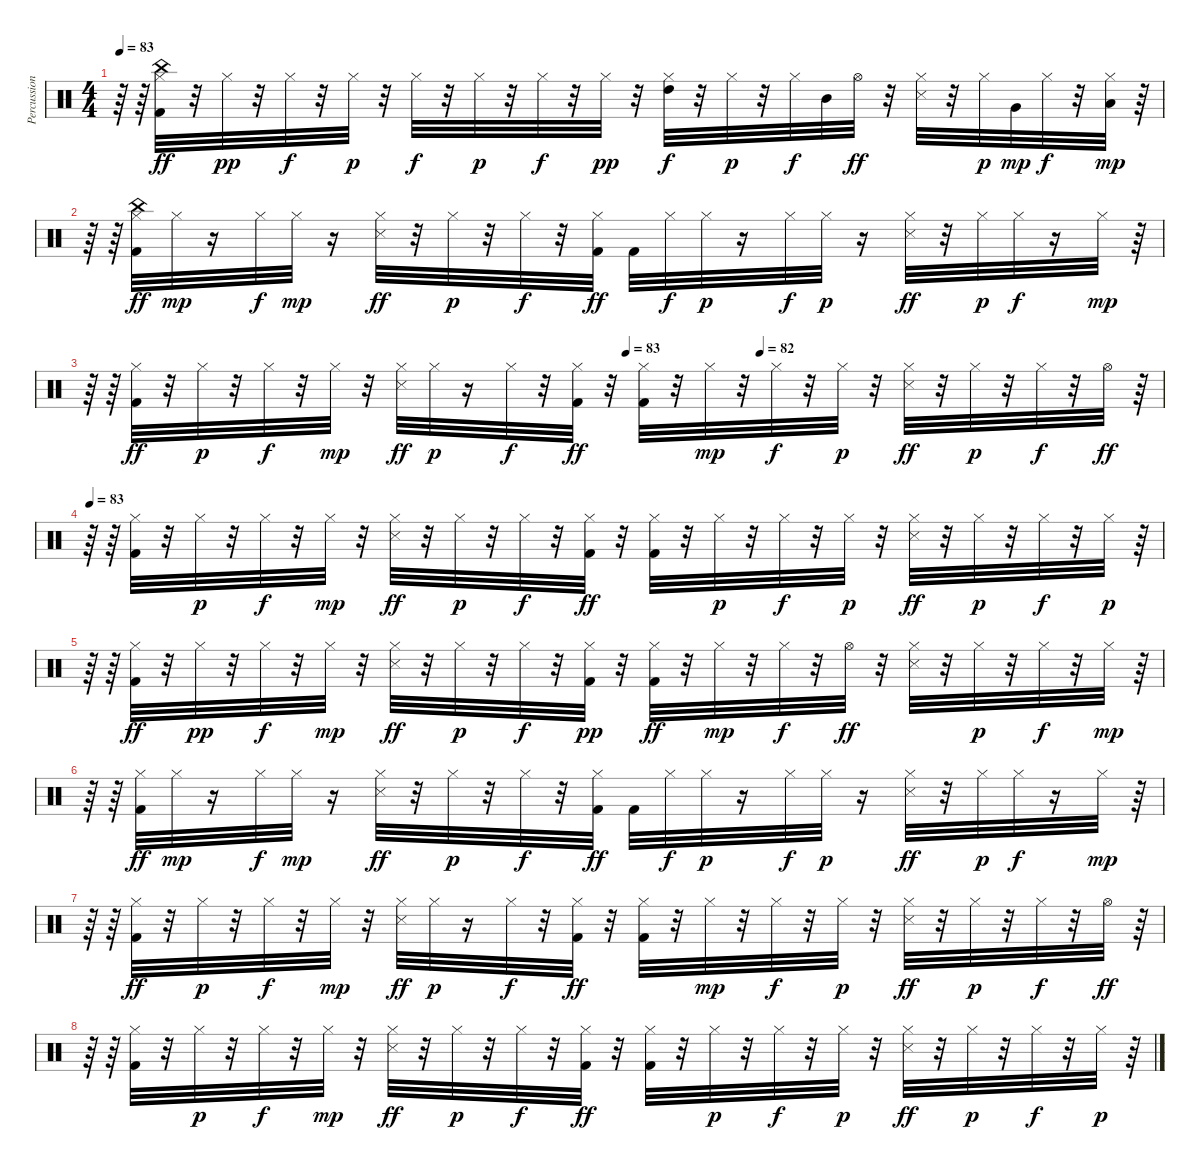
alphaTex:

\track ("Percussion" "Percussion") {instrument percussion}
\staff {score}
\articulation defaults
\ts (4 4)
\tempo 83
\clef neutral
\ks c
r.64{dy mp} r.64 ("China (hit)" "Hi-Hat (closed)" "Kick (hit) 2").32{dy ff} r.32 "Hi-Hat (closed)".32{dy pp} r.32 "Hi-Hat (closed)".32{dy f} r.32 "Hi-Hat (closed)".32{dy p} r.32 "Hi-Hat (closed)".32{dy f} r.32 "Hi-Hat (closed)".32{dy p} r.32 "Hi-Hat (closed)".32{dy f} r.32 "Hi-Hat (closed)".32{dy pp} r.32 ("High Tom (hit)" "Hi-Hat (closed)").32{dy f} r.32 "Hi-Hat (closed)".32{dy p} r.32 "Hi-Hat (closed)".32{dy f} "Mid Tom (hit)".32 "Hi-Hat (open)".32{dy ff} r.32 ("Snare (side stick) 3" "Hi-Hat (closed)").32 r.32 "Hi-Hat (closed)".32{dy p} "Very Low Tom (hit)".32{dy mp} "Hi-Hat (closed)".32{dy f} r.32 ("Low Floor Tom (hit)" "Hi-Hat (closed)").32{dy mp} r.64 |
r.64 r.64 ("China (hit)" "Hi-Hat (closed)" "Kick (hit) 2").32{dy ff} "Hi-Hat (closed)".32{dy mp} r.16 "Hi-Hat (closed)".32{dy f} "Hi-Hat (closed)".32{dy mp} r.16 ("Hi-Hat (closed)" "Snare (side stick) 3").32{dy ff} r.32 "Hi-Hat (closed)".32{dy p} r.32 "Hi-Hat (closed)".32{dy f} r.32 ("Hi-Hat (closed)" "Kick (hit) 2").32{dy ff} "Kick (hit) 2".32 "Hi-Hat (closed)".32{dy f} "Hi-Hat (closed)".32{dy p} r.16 "Hi-Hat (closed)".32{dy f} "Hi-Hat (closed)".32{dy p} r.16 ("Hi-Hat (closed)" "Snare (side stick) 3").32{dy ff} r.32 "Hi-Hat (closed)".32{dy p} "Hi-Hat (closed)".32{dy f} r.16 "Hi-Hat (closed)".32{dy mp} r.64 |
\tempo (83 0.5)
\tempo (82 0.625)
r.64 r.64 ("Kick (hit) 2" "Hi-Hat (closed)").32{dy ff} r.32 "Hi-Hat (closed)".32{dy p} r.32 "Hi-Hat (closed)".32{dy f} r.32 "Hi-Hat (closed)".32{dy mp} r.32 ("Hi-Hat (closed)" "Snare (side stick) 3").32{dy ff} "Hi-Hat (closed)".32{dy p} r.16 "Hi-Hat (closed)".32{dy f} r.32 ("Hi-Hat (closed)" "Kick (hit) 2").32{dy ff} r.32 ("Hi-Hat (closed)" "Kick (hit) 2").32 r.32 "Hi-Hat (closed)".32{dy mp} r.32 "Hi-Hat (closed)".32{dy f} r.32 "Hi-Hat (closed)".32{dy p} r.32 ("Hi-Hat (closed)" "Snare (side stick) 3").32{dy ff} r.32 "Hi-Hat (closed)".32{dy p} r.32 "Hi-Hat (closed)".32{dy f} r.32 "Hi-Hat (open)".32{dy ff} r.64 |
\tempo 83
r.64 r.64 ("Kick (hit) 2" "Hi-Hat (closed)").32 r.32 "Hi-Hat (closed)".32{dy p} r.32 "Hi-Hat (closed)".32{dy f} r.32 "Hi-Hat (closed)".32{dy mp} r.32 ("Hi-Hat (closed)" "Snare (side stick) 3").32{dy ff} r.32 "Hi-Hat (closed)".32{dy p} r.32 "Hi-Hat (closed)".32{dy f} r.32 ("Hi-Hat (closed)" "Kick (hit) 2").32{dy ff} r.32 ("Hi-Hat (closed)" "Kick (hit) 2").32 r.32 "Hi-Hat (closed)".32{dy p} r.32 "Hi-Hat (closed)".32{dy f} r.32 "Hi-Hat (closed)".32{dy p} r.32 ("Hi-Hat (closed)" "Snare (side stick) 3").32{dy ff} r.32 "Hi-Hat (closed)".32{dy p} r.32 "Hi-Hat (closed)".32{dy f} r.32 "Hi-Hat (closed)".32{dy p} r.64 |
r.64 r.64 ("Hi-Hat (closed)" "Kick (hit) 2").32{dy ff} r.32 "Hi-Hat (closed)".32{dy pp} r.32 "Hi-Hat (closed)".32{dy f} r.32 "Hi-Hat (closed)".32{dy mp} r.32 ("Snare (side stick) 3" "Hi-Hat (closed)").32{dy ff} r.32 "Hi-Hat (closed)".32{dy p} r.32 "Hi-Hat (closed)".32{dy f} r.32 ("Hi-Hat (closed)" "Kick (hit) 2").32{dy pp} r.32 ("Kick (hit) 2" "Hi-Hat (closed)").32{dy ff} r.32 "Hi-Hat (closed)".32{dy mp} r.32 "Hi-Hat (closed)".32{dy f} r.32 "Hi-Hat (open)".32{dy ff} r.32 ("Snare (side stick) 3" "Hi-Hat (closed)").32 r.32 "Hi-Hat (closed)".32{dy p} r.32 "Hi-Hat (closed)".32{dy f} r.32 "Hi-Hat (closed)".32{dy mp} r.64 |
r.64 r.64 ("Hi-Hat (closed)" "Kick (hit) 2").32{dy ff} "Hi-Hat (closed)".32{dy mp} r.16 "Hi-Hat (closed)".32{dy f} "Hi-Hat (closed)".32{dy mp} r.16 ("Hi-Hat (closed)" "Snare (side stick) 3").32{dy ff} r.32 "Hi-Hat (closed)".32{dy p} r.32 "Hi-Hat (closed)".32{dy f} r.32 ("Hi-Hat (closed)" "Kick (hit) 2").32{dy ff} "Kick (hit) 2".32 "Hi-Hat (closed)".32{dy f} "Hi-Hat (closed)".32{dy p} r.16 "Hi-Hat (closed)".32{dy f} "Hi-Hat (closed)".32{dy p} r.16 ("Hi-Hat (closed)" "Snare (side stick) 3").32{dy ff} r.32 "Hi-Hat (closed)".32{dy p} "Hi-Hat (closed)".32{dy f} r.16 "Hi-Hat (closed)".32{dy mp} r.64 |
r.64 r.64 ("Kick (hit) 2" "Hi-Hat (closed)").32{dy ff} r.32 "Hi-Hat (closed)".32{dy p} r.32 "Hi-Hat (closed)".32{dy f} r.32 "Hi-Hat (closed)".32{dy mp} r.32 ("Hi-Hat (closed)" "Snare (side stick) 3").32{dy ff} "Hi-Hat (closed)".32{dy p} r.16 "Hi-Hat (closed)".32{dy f} r.32 ("Hi-Hat (closed)" "Kick (hit) 2").32{dy ff} r.32 ("Hi-Hat (closed)" "Kick (hit) 2").32 r.32 "Hi-Hat (closed)".32{dy mp} r.32 "Hi-Hat (closed)".32{dy f} r.32 "Hi-Hat (closed)".32{dy p} r.32 ("Hi-Hat (closed)" "Snare (side stick) 3").32{dy ff} r.32 "Hi-Hat (closed)".32{dy p} r.32 "Hi-Hat (closed)".32{dy f} r.32 "Hi-Hat (open)".32{dy ff} r.64 |
r.64 r.64 ("Kick (hit) 2" "Hi-Hat (closed)").32 r.32 "Hi-Hat (closed)".32{dy p} r.32 "Hi-Hat (closed)".32{dy f} r.32 "Hi-Hat (closed)".32{dy mp} r.32 ("Hi-Hat (closed)" "Snare (side stick) 3").32{dy ff} r.32 "Hi-Hat (closed)".32{dy p} r.32 "Hi-Hat (closed)".32{dy f} r.32 ("Hi-Hat (closed)" "Kick (hit) 2").32{dy ff} r.32 ("Hi-Hat (closed)" "Kick (hit) 2").32 r.32 "Hi-Hat (closed)".32{dy p} r.32 "Hi-Hat (closed)".32{dy f} r.32 "Hi-Hat (closed)".32{dy p} r.32 ("Hi-Hat (closed)" "Snare (side stick) 3").32{dy ff} r.32 "Hi-Hat (closed)".32{dy p} r.32 "Hi-Hat (closed)".32{dy f} r.32 "Hi-Hat (closed)".32{dy p} r.64
